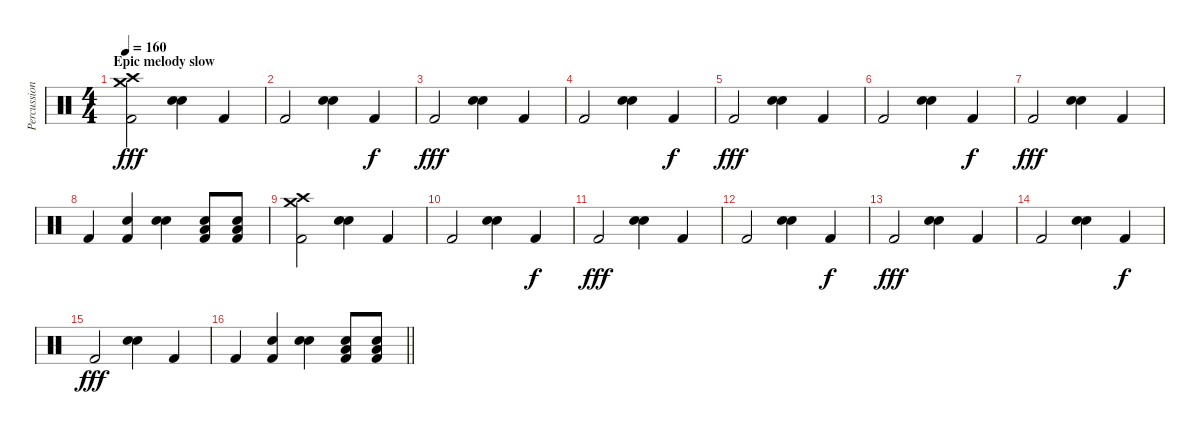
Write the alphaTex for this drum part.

\track ("Percussion" "Percussion") {instrument percussion}
\staff {score}
\articulation defaults
\ts (4 4)
\section ("" "Epic melody slow")
\tempo 160
\clef neutral
\ks c
("Crash high (hit)" "Kick (hit) 2" "Crash medium (hit)").2{dy fff} ("Snare (hit) 2" "Electric Snare (hit)").4 "Kick (hit) 2".4 |
"Kick (hit) 2".2 ("Snare (hit) 2" "Electric Snare (hit)").4 "Kick (hit) 2".4{dy f} |
"Kick (hit) 2".2{dy fff} ("Snare (hit) 2" "Electric Snare (hit)").4 "Kick (hit) 2".4 |
"Kick (hit) 2".2 ("Snare (hit) 2" "Electric Snare (hit)").4 "Kick (hit) 2".4{dy f} |
"Kick (hit) 2".2{dy fff} ("Snare (hit) 2" "Electric Snare (hit)").4 "Kick (hit) 2".4 |
"Kick (hit) 2".2 ("Snare (hit) 2" "Electric Snare (hit)").4 "Kick (hit) 2".4{dy f} |
"Kick (hit) 2".2{dy fff} ("Snare (hit) 2" "Electric Snare (hit)").4 "Kick (hit) 2".4 |
"Kick (hit) 2".4 ("Kick (hit) 2" "Snare (hit) 2").4 ("Snare (hit) 2" "Snare (hit) 2").4 ("Kick (hit) 2" "Snare (hit) 2" "Low Floor Tom (hit)").8 ("Kick (hit) 2" "Snare (hit) 2" "Low Floor Tom (hit)").8 |
("Crash high (hit)" "Kick (hit) 2" "Crash medium (hit)").2 ("Snare (hit) 2" "Electric Snare (hit)").4 "Kick (hit) 2".4 |
"Kick (hit) 2".2 ("Snare (hit) 2" "Electric Snare (hit)").4 "Kick (hit) 2".4{dy f} |
"Kick (hit) 2".2{dy fff} ("Snare (hit) 2" "Electric Snare (hit)").4 "Kick (hit) 2".4 |
"Kick (hit) 2".2 ("Snare (hit) 2" "Electric Snare (hit)").4 "Kick (hit) 2".4{dy f} |
"Kick (hit) 2".2{dy fff} ("Snare (hit) 2" "Electric Snare (hit)").4 "Kick (hit) 2".4 |
"Kick (hit) 2".2 ("Snare (hit) 2" "Electric Snare (hit)").4 "Kick (hit) 2".4{dy f} |
"Kick (hit) 2".2{dy fff} ("Snare (hit) 2" "Electric Snare (hit)").4 "Kick (hit) 2".4 |
\barLineRight lightlight "Kick (hit) 2".4
("Kick (hit) 2" "Snare (hit) 2").4 ("Snare (hit) 2" "Snare (hit) 2").4 ("Kick (hit) 2" "Snare (hit) 2" "Low Floor Tom (hit)").8 ("Kick (hit) 2" "Snare (hit) 2" "Low Floor Tom (hit)").8
